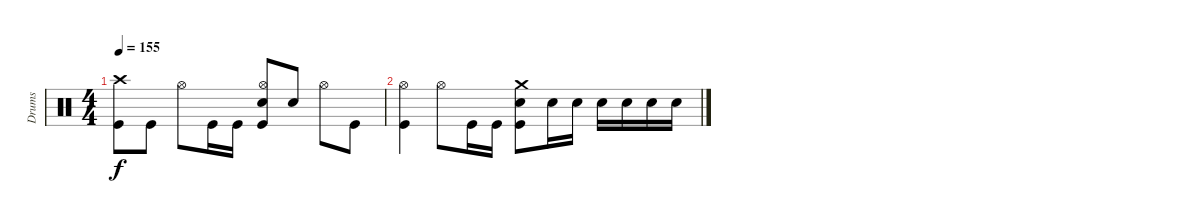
\track ("Drums" "Drums") {instrument percussion}
\staff {score}
\articulation defaults
\ts (4 4)
\tempo 155
\clef neutral
\ks c
("Crash high (hit)" "Kick (hit)").8{dy f} "Kick (hit)".8 "Hi-Hat (open)".8 "Kick (hit)".16 "Kick (hit)".16 ("Hi-Hat (open)" "Snare (hit) 2" "Kick (hit)").8 "Snare (hit) 2".8 "Hi-Hat (open)".8 "Kick (hit)".8 |
("Hi-Hat (open)" "Kick (hit)").4 "Hi-Hat (open)".8 "Kick (hit)".16 "Kick (hit)".16 ("Crash medium (hit)" "Snare (hit) 2" "Kick (hit)").8 "Snare (hit) 2".16 "Snare (hit) 2".16 "Snare (hit) 2".16 "Snare (hit) 2".16 "Snare (hit) 2".16 "Snare (hit) 2".16
